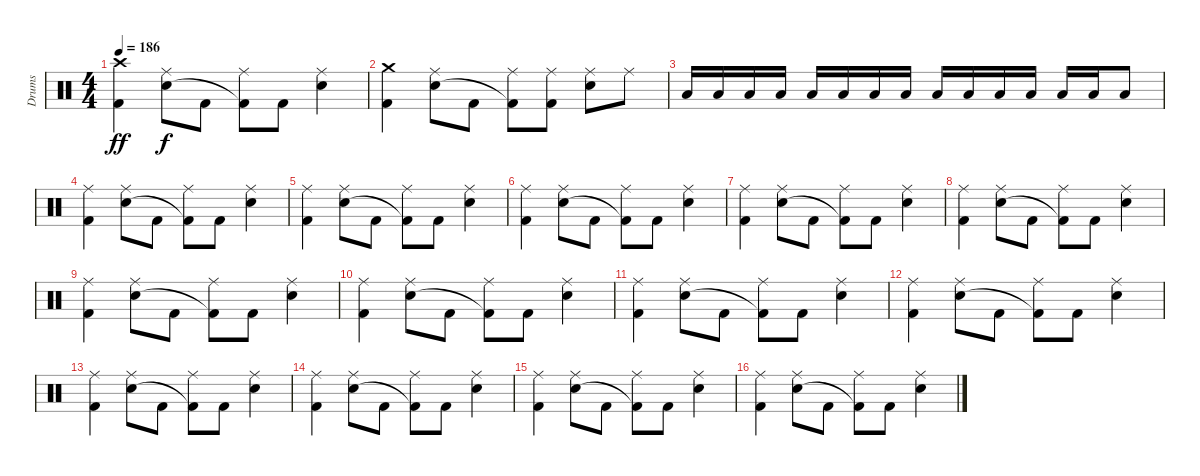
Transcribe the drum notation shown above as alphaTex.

\track ("Drums" "Drums") {instrument percussion}
\staff {score}
\articulation defaults
\ts (4 4)
\tempo 186
\clef neutral
\ks c
("Crash high (hit)" "Kick (hit) 2").4{dy ff} ("Ride (middle)" "Electric Snare (hit)").8{dy f} "Kick (hit) 2".8 ("Ride (middle)" "Kick (hit) 2"{t}).8 "Kick (hit) 2".8 ("Ride (middle)" "Electric Snare (hit)").4 |
("Crash medium (hit)" "Kick (hit) 2").4 ("Ride (middle)" "Electric Snare (hit)").8 "Kick (hit) 2".8 ("Ride (middle)" "Kick (hit) 2"{t}).8 ("Ride (middle)" "Kick (hit) 2").8 ("Ride (middle)" "Electric Snare (hit)").8 "Ride (middle)".8 |
"Low Tom (hit)".16 "Low Tom (hit)".16 "Low Tom (hit)".16 "Low Tom (hit)".16 "Low Tom (hit)".16 "Low Tom (hit)".16 "Low Tom (hit)".16 "Low Tom (hit)".16 "Low Tom (hit)".16 "Low Tom (hit)".16 "Low Tom (hit)".16 "Low Tom (hit)".16 "Low Tom (hit)".16 "Low Tom (hit)".16 "Low Tom (hit)".8 |
("Ride (middle)" "Kick (hit) 2").4 ("Ride (middle)" "Electric Snare (hit)").8 "Kick (hit) 2".8 ("Ride (middle)" "Kick (hit) 2"{t}).8 "Kick (hit) 2".8 ("Ride (middle)" "Electric Snare (hit)").4 |
("Ride (middle)" "Kick (hit) 2").4 ("Ride (middle)" "Electric Snare (hit)").8 "Kick (hit) 2".8 ("Ride (middle)" "Kick (hit) 2"{t}).8 "Kick (hit) 2".8 ("Ride (middle)" "Electric Snare (hit)").4 |
("Ride (middle)" "Kick (hit) 2").4 ("Ride (middle)" "Electric Snare (hit)").8 "Kick (hit) 2".8 ("Ride (middle)" "Kick (hit) 2"{t}).8 "Kick (hit) 2".8 ("Ride (middle)" "Electric Snare (hit)").4 |
("Ride (middle)" "Kick (hit) 2").4 ("Ride (middle)" "Electric Snare (hit)").8 "Kick (hit) 2".8 ("Ride (middle)" "Kick (hit) 2"{t}).8 "Kick (hit) 2".8 ("Ride (middle)" "Electric Snare (hit)").4 |
("Ride (middle)" "Kick (hit) 2").4 ("Ride (middle)" "Electric Snare (hit)").8 "Kick (hit) 2".8 ("Ride (middle)" "Kick (hit) 2"{t}).8 "Kick (hit) 2".8 ("Ride (middle)" "Electric Snare (hit)").4 |
("Ride (middle)" "Kick (hit) 2").4 ("Ride (middle)" "Electric Snare (hit)").8 "Kick (hit) 2".8 ("Ride (middle)" "Kick (hit) 2"{t}).8 "Kick (hit) 2".8 ("Ride (middle)" "Electric Snare (hit)").4 |
("Ride (middle)" "Kick (hit) 2").4 ("Ride (middle)" "Electric Snare (hit)").8 "Kick (hit) 2".8 ("Ride (middle)" "Kick (hit) 2"{t}).8 "Kick (hit) 2".8 ("Ride (middle)" "Electric Snare (hit)").4 |
("Ride (middle)" "Kick (hit) 2").4 ("Ride (middle)" "Electric Snare (hit)").8 "Kick (hit) 2".8 ("Ride (middle)" "Kick (hit) 2"{t}).8 "Kick (hit) 2".8 ("Ride (middle)" "Electric Snare (hit)").4 |
("Ride (middle)" "Kick (hit) 2").4 ("Ride (middle)" "Electric Snare (hit)").8 "Kick (hit) 2".8 ("Ride (middle)" "Kick (hit) 2"{t}).8 "Kick (hit) 2".8 ("Ride (middle)" "Electric Snare (hit)").4 |
("Ride (middle)" "Kick (hit) 2").4 ("Ride (middle)" "Electric Snare (hit)").8 "Kick (hit) 2".8 ("Ride (middle)" "Kick (hit) 2"{t}).8 "Kick (hit) 2".8 ("Ride (middle)" "Electric Snare (hit)").4 |
("Ride (middle)" "Kick (hit) 2").4 ("Ride (middle)" "Electric Snare (hit)").8 "Kick (hit) 2".8 ("Ride (middle)" "Kick (hit) 2"{t}).8 "Kick (hit) 2".8 ("Ride (middle)" "Electric Snare (hit)").4 |
("Ride (middle)" "Kick (hit) 2").4 ("Ride (middle)" "Electric Snare (hit)").8 "Kick (hit) 2".8 ("Ride (middle)" "Kick (hit) 2"{t}).8 "Kick (hit) 2".8 ("Ride (middle)" "Electric Snare (hit)").4 |
("Ride (middle)" "Kick (hit) 2").4 ("Ride (middle)" "Electric Snare (hit)").8 "Kick (hit) 2".8 ("Ride (middle)" "Kick (hit) 2"{t}).8 "Kick (hit) 2".8 ("Ride (middle)" "Electric Snare (hit)").4
